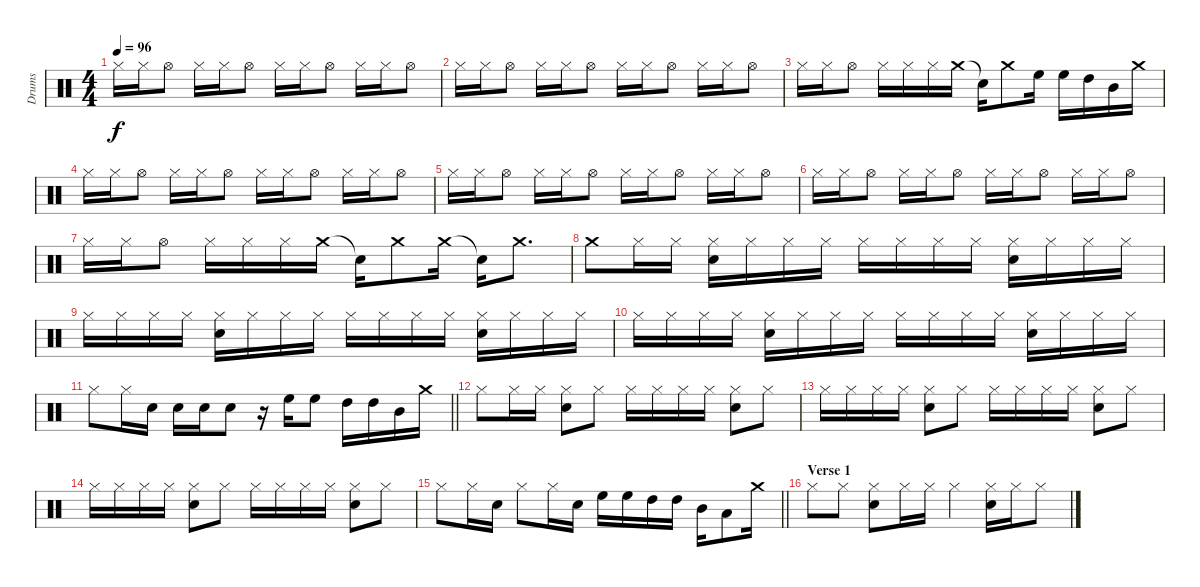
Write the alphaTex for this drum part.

\track ("Drums" "Drums") {instrument percussion}
\staff {score}
\articulation defaults
\ts (4 4)
\tempo 96
\clef neutral
\ks c "Hi-Hat (closed)".16{dy f} "Hi-Hat (closed)".16 "Hi-Hat (open)".8 "Hi-Hat (closed)".16 "Hi-Hat (closed)".16 "Hi-Hat (open)".8 "Hi-Hat (closed)".16 "Hi-Hat (closed)".16 "Hi-Hat (open)".8 "Hi-Hat (closed)".16 "Hi-Hat (closed)".16 "Hi-Hat (open)".8
|
"Hi-Hat (closed)".16 "Hi-Hat (closed)".16 "Hi-Hat (open)".8 "Hi-Hat (closed)".16 "Hi-Hat (closed)".16 "Hi-Hat (open)".8 "Hi-Hat (closed)".16 "Hi-Hat (closed)".16 "Hi-Hat (open)".8 "Hi-Hat (closed)".16 "Hi-Hat (closed)".16 "Hi-Hat (open)".8 |
"Hi-Hat (closed)".16 "Hi-Hat (closed)".16 "Hi-Hat (open)".8 "Hi-Hat (closed)".16 "Hi-Hat (closed)".16 "Hi-Hat (closed)".16 "Crash medium (hit)".16 "Snare (hit)"{t}.16 "Crash medium (hit)".8 "High Floor Tom (hit)".16 "High Floor Tom (hit)".16 "High Tom (hit)".16 "Mid Tom (hit)".16 "Crash medium (hit)".16 |
"Hi-Hat (closed)".16 "Hi-Hat (closed)".16 "Hi-Hat (open)".8 "Hi-Hat (closed)".16 "Hi-Hat (closed)".16 "Hi-Hat (open)".8 "Hi-Hat (closed)".16 "Hi-Hat (closed)".16 "Hi-Hat (open)".8 "Hi-Hat (closed)".16 "Hi-Hat (closed)".16 "Hi-Hat (open)".8 |
"Hi-Hat (closed)".16 "Hi-Hat (closed)".16 "Hi-Hat (open)".8 "Hi-Hat (closed)".16 "Hi-Hat (closed)".16 "Hi-Hat (open)".8 "Hi-Hat (closed)".16 "Hi-Hat (closed)".16 "Hi-Hat (open)".8 "Hi-Hat (closed)".16 "Hi-Hat (closed)".16 "Hi-Hat (open)".8 |
"Hi-Hat (closed)".16 "Hi-Hat (closed)".16 "Hi-Hat (open)".8 "Hi-Hat (closed)".16 "Hi-Hat (closed)".16 "Hi-Hat (open)".8 "Hi-Hat (closed)".16 "Hi-Hat (closed)".16 "Hi-Hat (open)".8 "Hi-Hat (closed)".16 "Hi-Hat (closed)".16 "Hi-Hat (open)".8 |
"Hi-Hat (closed)".16 "Hi-Hat (closed)".16 "Hi-Hat (open)".8 "Hi-Hat (closed)".16 "Hi-Hat (closed)".16 "Hi-Hat (closed)".16 "Crash medium (hit)".16 "Snare (hit)"{t}.16 "Crash medium (hit)".8 "Crash medium (hit)".16 "Snare (hit)"{t}.16 "Crash medium (hit)".8{d} |
"Crash medium (hit)".8 "Hi-Hat (closed)".16 "Hi-Hat (closed)".16 ("Hi-Hat (closed)" "Electric Snare (hit)").16 "Hi-Hat (closed)".16 "Hi-Hat (closed)".16 "Hi-Hat (closed)".16 "Hi-Hat (closed)".16 "Hi-Hat (closed)".16 "Hi-Hat (closed)".16 "Hi-Hat (closed)".16 ("Hi-Hat (closed)" "Electric Snare (hit)").16 "Hi-Hat (closed)".16 "Hi-Hat (closed)".16 "Hi-Hat (closed)".16 |
"Hi-Hat (closed)".16 "Hi-Hat (closed)".16 "Hi-Hat (closed)".16 "Hi-Hat (closed)".16 ("Hi-Hat (closed)" "Electric Snare (hit)").16 "Hi-Hat (closed)".16 "Hi-Hat (closed)".16 "Hi-Hat (closed)".16 "Hi-Hat (closed)".16 "Hi-Hat (closed)".16 "Hi-Hat (closed)".16 "Hi-Hat (closed)".16 ("Hi-Hat (closed)" "Electric Snare (hit)").16 "Hi-Hat (closed)".16 "Hi-Hat (closed)".16 "Hi-Hat (closed)".16 |
"Hi-Hat (closed)".16 "Hi-Hat (closed)".16 "Hi-Hat (closed)".16 "Hi-Hat (closed)".16 ("Hi-Hat (closed)" "Electric Snare (hit)").16 "Hi-Hat (closed)".16 "Hi-Hat (closed)".16 "Hi-Hat (closed)".16 "Hi-Hat (closed)".16 "Hi-Hat (closed)".16 "Hi-Hat (closed)".16 "Hi-Hat (closed)".16 ("Hi-Hat (closed)" "Electric Snare (hit)").16 "Hi-Hat (closed)".16 "Hi-Hat (closed)".16 "Hi-Hat (closed)".16 |
\barLineRight lightlight "Hi-Hat (closed)".8 "Hi-Hat (closed)".16 "Electric Snare (hit)".16 "Electric Snare (hit)".16 "Electric Snare (hit)".16 "Electric Snare (hit)".8
r.16 "High Floor Tom (hit)".16 "High Floor Tom (hit)".8 "High Tom (hit)".16 "High Tom (hit)".16 "Mid Tom (hit)".16 "Crash medium (hit)".16 |
"Hi-Hat (closed)".8 "Hi-Hat (closed)".16 "Hi-Hat (closed)".16 ("Hi-Hat (closed)" "Electric Snare (hit)").8 "Hi-Hat (closed)".8 "Hi-Hat (closed)".16 "Hi-Hat (closed)".16 "Hi-Hat (closed)".16 "Hi-Hat (closed)".16 ("Hi-Hat (closed)" "Electric Snare (hit)").8 "Hi-Hat (closed)".8 |
"Hi-Hat (closed)".16 "Hi-Hat (closed)".16 "Hi-Hat (closed)".16 "Hi-Hat (closed)".16 ("Hi-Hat (closed)" "Electric Snare (hit)").8 "Hi-Hat (closed)".8 "Hi-Hat (closed)".16 "Hi-Hat (closed)".16 "Hi-Hat (closed)".16 "Hi-Hat (closed)".16 ("Hi-Hat (closed)" "Electric Snare (hit)").8 "Hi-Hat (closed)".8 |
"Hi-Hat (closed)".16 "Hi-Hat (closed)".16 "Hi-Hat (closed)".16 "Hi-Hat (closed)".16 ("Hi-Hat (closed)" "Electric Snare (hit)").8 "Hi-Hat (closed)".8 "Hi-Hat (closed)".16 "Hi-Hat (closed)".16 "Hi-Hat (closed)".16 "Hi-Hat (closed)".16 ("Hi-Hat (closed)" "Electric Snare (hit)").8 "Hi-Hat (closed)".8 |
\barLineRight lightlight "Hi-Hat (closed)".8 "Hi-Hat (closed)".16 "Electric Snare (hit)".16 "Hi-Hat (closed)".8 "Hi-Hat (closed)".16 "Electric Snare (hit)".16 "High Floor Tom (hit)".16 "High Floor Tom (hit)".16 "High Tom (hit)".16 "High Tom (hit)".16 "Mid Tom (hit)".16 "Low Tom (hit)".8 "Crash medium (hit)".16
|
\section ("" "Verse 1")
"Hi-Hat (closed)".8 "Hi-Hat (closed)".8 ("Hi-Hat (closed)" "Electric Snare (hit)").8 "Hi-Hat (closed)".16 "Hi-Hat (closed)".16 "Hi-Hat (closed)".4 ("Hi-Hat (closed)" "Electric Snare (hit)").16 "Hi-Hat (closed)".16 "Hi-Hat (closed)".8
